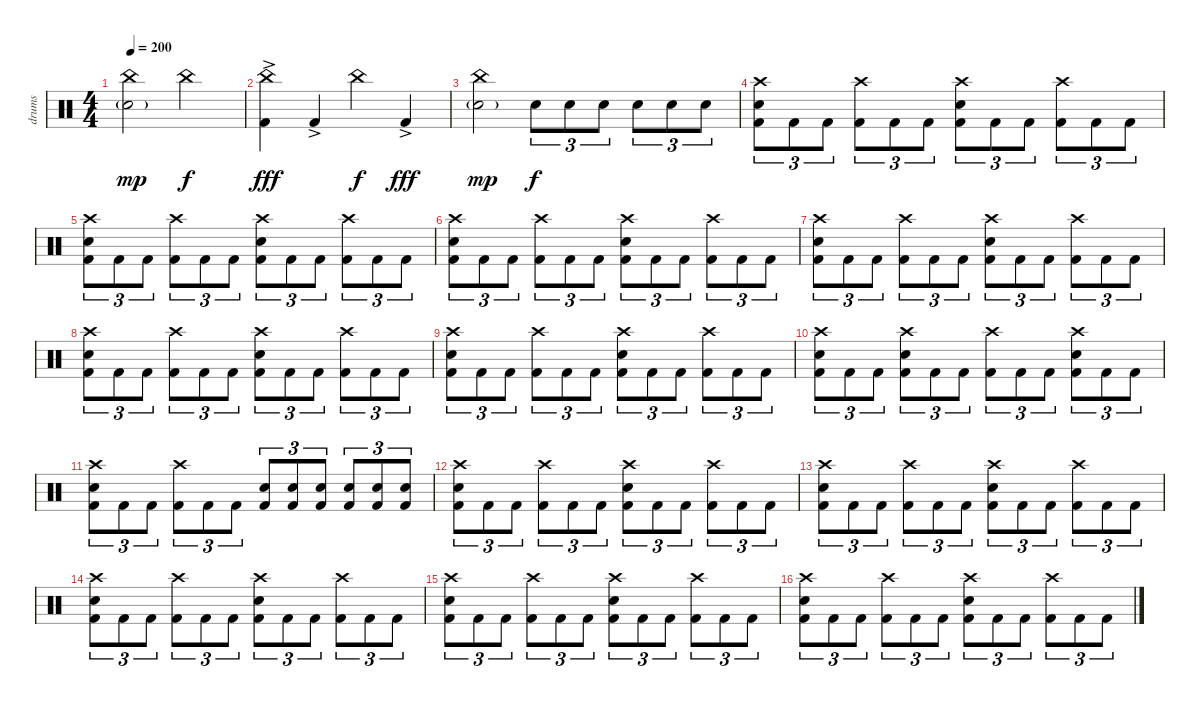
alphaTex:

\track ("drums" "drums") {instrument percussion}
\staff {score}
\articulation defaults
\ts (4 4)
\tempo 200
\clef neutral
\ks c
("China (hit)" "Snare (hit) 2"{g}).2{dy mp} "China (hit)".2{dy f} |
("China (hit)" "Kick (hit) 2"{ac}).4{dy fff} "Kick (hit) 2"{ac}.4 "China (hit)".4{dy f} "Kick (hit) 2"{ac}.4{dy fff} |
("China (hit)" "Electric Snare (hit)"{g}).2{dy mp} "Electric Snare (hit)".8{tu (3 2) dy f} "Electric Snare (hit)".8{tu (3 2)} "Electric Snare (hit)".8{tu (3 2)} "Electric Snare (hit)".8{tu (3 2)} "Electric Snare (hit)".8{tu (3 2)} "Electric Snare (hit)".8{tu (3 2)} |
\section ("" "")
("Crash high (hit)" "Electric Snare (hit)" "Kick (hit) 2").8{tu (3 2)} "Kick (hit) 2".8{tu (3 2)} "Kick (hit) 2".8{tu (3 2)} ("Crash high (hit)" "Kick (hit) 2").8{tu (3 2)} "Kick (hit) 2".8{tu (3 2)} "Kick (hit) 2".8{tu (3 2)} ("Crash high (hit)" "Electric Snare (hit)" "Kick (hit) 2").8{tu (3 2)} "Kick (hit) 2".8{tu (3 2)} "Kick (hit) 2".8{tu (3 2)} ("Crash high (hit)" "Kick (hit) 2").8{tu (3 2)} "Kick (hit) 2".8{tu (3 2)} "Kick (hit) 2".8{tu (3 2)} |
("Crash high (hit)" "Electric Snare (hit)" "Kick (hit) 2").8{tu (3 2)} "Kick (hit) 2".8{tu (3 2)} "Kick (hit) 2".8{tu (3 2)} ("Crash high (hit)" "Kick (hit) 2").8{tu (3 2)} "Kick (hit) 2".8{tu (3 2)} "Kick (hit) 2".8{tu (3 2)} ("Crash high (hit)" "Electric Snare (hit)" "Kick (hit) 2").8{tu (3 2)} "Kick (hit) 2".8{tu (3 2)} "Kick (hit) 2".8{tu (3 2)} ("Crash high (hit)" "Kick (hit) 2").8{tu (3 2)} "Kick (hit) 2".8{tu (3 2)} "Kick (hit) 2".8{tu (3 2)} |
("Crash high (hit)" "Electric Snare (hit)" "Kick (hit) 2").8{tu (3 2)} "Kick (hit) 2".8{tu (3 2)} "Kick (hit) 2".8{tu (3 2)} ("Crash high (hit)" "Kick (hit) 2").8{tu (3 2)} "Kick (hit) 2".8{tu (3 2)} "Kick (hit) 2".8{tu (3 2)} ("Crash high (hit)" "Electric Snare (hit)" "Kick (hit) 2").8{tu (3 2)} "Kick (hit) 2".8{tu (3 2)} "Kick (hit) 2".8{tu (3 2)} ("Crash high (hit)" "Kick (hit) 2").8{tu (3 2)} "Kick (hit) 2".8{tu (3 2)} "Kick (hit) 2".8{tu (3 2)} |
("Crash high (hit)" "Electric Snare (hit)" "Kick (hit) 2").8{tu (3 2)} "Kick (hit) 2".8{tu (3 2)} "Kick (hit) 2".8{tu (3 2)} ("Crash high (hit)" "Kick (hit) 2").8{tu (3 2)} "Kick (hit) 2".8{tu (3 2)} "Kick (hit) 2".8{tu (3 2)} ("Crash high (hit)" "Electric Snare (hit)" "Kick (hit) 2").8{tu (3 2)} "Kick (hit) 2".8{tu (3 2)} "Kick (hit) 2".8{tu (3 2)} ("Crash high (hit)" "Kick (hit) 2").8{tu (3 2)} "Kick (hit) 2".8{tu (3 2)} "Kick (hit) 2".8{tu (3 2)} |
("Crash high (hit)" "Electric Snare (hit)" "Kick (hit) 2").8{tu (3 2)} "Kick (hit) 2".8{tu (3 2)} "Kick (hit) 2".8{tu (3 2)} ("Crash high (hit)" "Kick (hit) 2").8{tu (3 2)} "Kick (hit) 2".8{tu (3 2)} "Kick (hit) 2".8{tu (3 2)} ("Crash high (hit)" "Electric Snare (hit)" "Kick (hit) 2").8{tu (3 2)} "Kick (hit) 2".8{tu (3 2)} "Kick (hit) 2".8{tu (3 2)} ("Crash high (hit)" "Kick (hit) 2").8{tu (3 2)} "Kick (hit) 2".8{tu (3 2)} "Kick (hit) 2".8{tu (3 2)} |
("Crash high (hit)" "Electric Snare (hit)" "Kick (hit) 2").8{tu (3 2)} "Kick (hit) 2".8{tu (3 2)} "Kick (hit) 2".8{tu (3 2)} ("Crash high (hit)" "Kick (hit) 2").8{tu (3 2)} "Kick (hit) 2".8{tu (3 2)} "Kick (hit) 2".8{tu (3 2)} ("Crash high (hit)" "Electric Snare (hit)" "Kick (hit) 2").8{tu (3 2)} "Kick (hit) 2".8{tu (3 2)} "Kick (hit) 2".8{tu (3 2)} ("Crash high (hit)" "Kick (hit) 2").8{tu (3 2)} "Kick (hit) 2".8{tu (3 2)} "Kick (hit) 2".8{tu (3 2)} |
("Crash high (hit)" "Electric Snare (hit)" "Kick (hit) 2").8{tu (3 2)} "Kick (hit) 2".8{tu (3 2)} "Kick (hit) 2".8{tu (3 2)} ("Crash high (hit)" "Electric Snare (hit)" "Kick (hit) 2").8{tu (3 2)} "Kick (hit) 2".8{tu (3 2)} "Kick (hit) 2".8{tu (3 2)} ("Crash high (hit)" "Kick (hit) 2").8{tu (3 2)} "Kick (hit) 2".8{tu (3 2)} "Kick (hit) 2".8{tu (3 2)} ("Crash high (hit)" "Electric Snare (hit)" "Kick (hit) 2").8{tu (3 2)} "Kick (hit) 2".8{tu (3 2)} "Kick (hit) 2".8{tu (3 2)} |
("Crash high (hit)" "Electric Snare (hit)" "Kick (hit) 2").8{tu (3 2)} "Kick (hit) 2".8{tu (3 2)} "Kick (hit) 2".8{tu (3 2)} ("Crash high (hit)" "Kick (hit) 2").8{tu (3 2)} "Kick (hit) 2".8{tu (3 2)} "Kick (hit) 2".8{tu (3 2)} ("Electric Snare (hit)" "Kick (hit) 2").8{tu (3 2)} ("Electric Snare (hit)" "Kick (hit) 2").8{tu (3 2)} ("Electric Snare (hit)" "Kick (hit) 2").8{tu (3 2)} ("Electric Snare (hit)" "Kick (hit) 2").8{tu (3 2)} ("Electric Snare (hit)" "Kick (hit) 2").8{tu (3 2)} ("Electric Snare (hit)" "Kick (hit) 2").8{tu (3 2)} |
("Crash high (hit)" "Electric Snare (hit)" "Kick (hit) 2").8{tu (3 2)} "Kick (hit) 2".8{tu (3 2)} "Kick (hit) 2".8{tu (3 2)} ("Crash high (hit)" "Kick (hit) 2").8{tu (3 2)} "Kick (hit) 2".8{tu (3 2)} "Kick (hit) 2".8{tu (3 2)} ("Crash high (hit)" "Electric Snare (hit)" "Kick (hit) 2").8{tu (3 2)} "Kick (hit) 2".8{tu (3 2)} "Kick (hit) 2".8{tu (3 2)} ("Crash high (hit)" "Kick (hit) 2").8{tu (3 2)} "Kick (hit) 2".8{tu (3 2)} "Kick (hit) 2".8{tu (3 2)} |
("Crash high (hit)" "Electric Snare (hit)" "Kick (hit) 2").8{tu (3 2)} "Kick (hit) 2".8{tu (3 2)} "Kick (hit) 2".8{tu (3 2)} ("Crash high (hit)" "Kick (hit) 2").8{tu (3 2)} "Kick (hit) 2".8{tu (3 2)} "Kick (hit) 2".8{tu (3 2)} ("Crash high (hit)" "Electric Snare (hit)" "Kick (hit) 2").8{tu (3 2)} "Kick (hit) 2".8{tu (3 2)} "Kick (hit) 2".8{tu (3 2)} ("Crash high (hit)" "Kick (hit) 2").8{tu (3 2)} "Kick (hit) 2".8{tu (3 2)} "Kick (hit) 2".8{tu (3 2)} |
("Crash high (hit)" "Electric Snare (hit)" "Kick (hit) 2").8{tu (3 2)} "Kick (hit) 2".8{tu (3 2)} "Kick (hit) 2".8{tu (3 2)} ("Crash high (hit)" "Kick (hit) 2").8{tu (3 2)} "Kick (hit) 2".8{tu (3 2)} "Kick (hit) 2".8{tu (3 2)} ("Crash high (hit)" "Electric Snare (hit)" "Kick (hit) 2").8{tu (3 2)} "Kick (hit) 2".8{tu (3 2)} "Kick (hit) 2".8{tu (3 2)} ("Crash high (hit)" "Kick (hit) 2").8{tu (3 2)} "Kick (hit) 2".8{tu (3 2)} "Kick (hit) 2".8{tu (3 2)} |
("Crash high (hit)" "Electric Snare (hit)" "Kick (hit) 2").8{tu (3 2)} "Kick (hit) 2".8{tu (3 2)} "Kick (hit) 2".8{tu (3 2)} ("Crash high (hit)" "Kick (hit) 2").8{tu (3 2)} "Kick (hit) 2".8{tu (3 2)} "Kick (hit) 2".8{tu (3 2)} ("Crash high (hit)" "Electric Snare (hit)" "Kick (hit) 2").8{tu (3 2)} "Kick (hit) 2".8{tu (3 2)} "Kick (hit) 2".8{tu (3 2)} ("Crash high (hit)" "Kick (hit) 2").8{tu (3 2)} "Kick (hit) 2".8{tu (3 2)} "Kick (hit) 2".8{tu (3 2)} |
("Crash high (hit)" "Electric Snare (hit)" "Kick (hit) 2").8{tu (3 2)} "Kick (hit) 2".8{tu (3 2)} "Kick (hit) 2".8{tu (3 2)} ("Crash high (hit)" "Kick (hit) 2").8{tu (3 2)} "Kick (hit) 2".8{tu (3 2)} "Kick (hit) 2".8{tu (3 2)} ("Crash high (hit)" "Electric Snare (hit)" "Kick (hit) 2").8{tu (3 2)} "Kick (hit) 2".8{tu (3 2)} "Kick (hit) 2".8{tu (3 2)} ("Crash high (hit)" "Kick (hit) 2").8{tu (3 2)} "Kick (hit) 2".8{tu (3 2)} "Kick (hit) 2".8{tu (3 2)}
